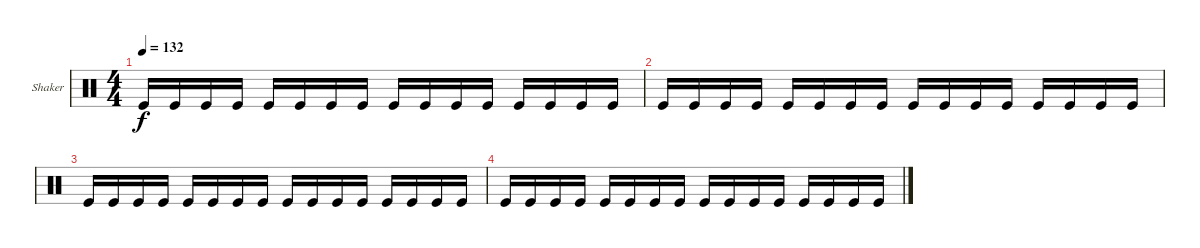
\defaultSystemsLayout 4
\bracketExtendMode groupsimilarinstruments
\firstSystemTrackNameOrientation horizontal
\otherSystemsTrackNameOrientation horizontal
\track ("Shaker" "Shaker") {instrument percussion}
\staff {score}
\articulation defaults
\ts (4 4)
\tempo 132
\clef neutral
\scale
0.333333
\ks c "Kick (hit)".16{dy f} "Kick (hit)".16 "Kick (hit)".16 "Kick (hit)".16 "Kick (hit)".16 "Kick (hit)".16 "Kick (hit)".16 "Kick (hit)".16 "Kick (hit)".16 "Kick (hit)".16 "Kick (hit)".16 "Kick (hit)".16 "Kick (hit)".16 "Kick (hit)".16 "Kick (hit)".16 "Kick (hit)".16
|
\scale
0.333333 "Kick (hit)".16 "Kick (hit)".16 "Kick (hit)".16 "Kick (hit)".16 "Kick (hit)".16 "Kick (hit)".16 "Kick (hit)".16 "Kick (hit)".16 "Kick (hit)".16 "Kick (hit)".16 "Kick (hit)".16 "Kick (hit)".16 "Kick (hit)".16 "Kick (hit)".16 "Kick (hit)".16 "Kick (hit)".16 |
\scale
0.333333 "Kick (hit)".16 "Kick (hit)".16 "Kick (hit)".16 "Kick (hit)".16 "Kick (hit)".16 "Kick (hit)".16 "Kick (hit)".16 "Kick (hit)".16 "Kick (hit)".16 "Kick (hit)".16 "Kick (hit)".16 "Kick (hit)".16 "Kick (hit)".16 "Kick (hit)".16 "Kick (hit)".16 "Kick (hit)".16 |
\scale
0.333333 "Kick (hit)".16 "Kick (hit)".16 "Kick (hit)".16 "Kick (hit)".16 "Kick (hit)".16 "Kick (hit)".16 "Kick (hit)".16 "Kick (hit)".16 "Kick (hit)".16 "Kick (hit)".16 "Kick (hit)".16 "Kick (hit)".16 "Kick (hit)".16 "Kick (hit)".16 "Kick (hit)".16 "Kick (hit)".16 |
\scale
0.333333 |
\scale
0.333333 |
\scale
0.333333 |
\scale
0.333333 |
\scale
0.333333 |
\scale
0.333333 |
\scale
0.333333 |
\scale
0.333333 |
\scale
0.333333 |
\scale
0.333333 |
\scale
0.333333 |
\scale
0.333333
